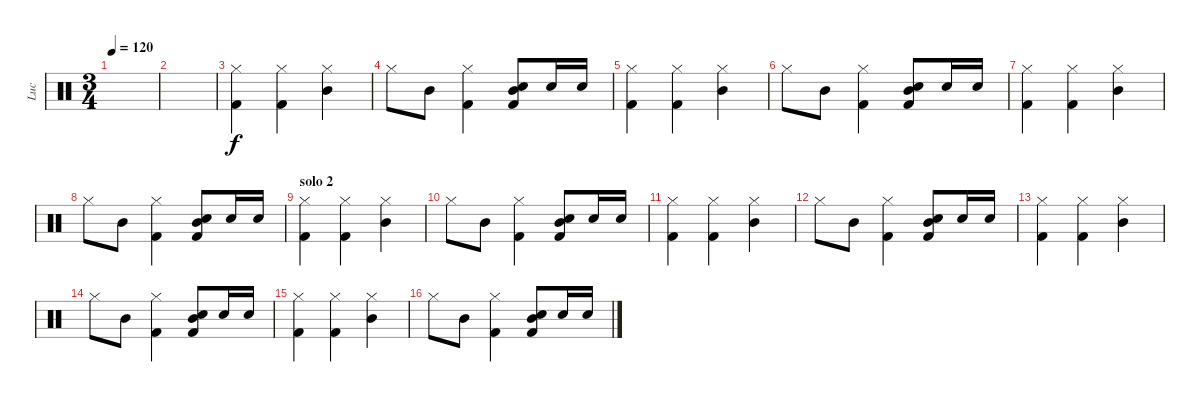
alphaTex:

\track ("Luc" "Luc") {instrument percussion}
\staff {score}
\articulation defaults
\ts (3 4)
\tempo 120
\clef neutral
\ks c
|
|
("Hi-Hat (closed)" "Kick (hit) 2").4 ("Hi-Hat (closed)" "Kick (hit) 2").4 ("Hi-Hat (closed)" "Mid Tom (hit)").4 |
"Hi-Hat (closed)".8 "Mid Tom (hit)".8 ("Hi-Hat (closed)" "Kick (hit) 2").4 ("Mid Tom (hit)" "Snare (hit) 2" "Kick (hit) 2").8 "Snare (hit) 2".16 "Snare (hit) 2".16 |
("Hi-Hat (closed)" "Kick (hit) 2").4 ("Hi-Hat (closed)" "Kick (hit) 2").4 ("Hi-Hat (closed)" "Mid Tom (hit)").4 |
"Hi-Hat (closed)".8 "Mid Tom (hit)".8 ("Hi-Hat (closed)" "Kick (hit) 2").4 ("Mid Tom (hit)" "Snare (hit) 2" "Kick (hit) 2").8 "Snare (hit) 2".16 "Snare (hit) 2".16 |
("Hi-Hat (closed)" "Kick (hit) 2").4 ("Hi-Hat (closed)" "Kick (hit) 2").4 ("Hi-Hat (closed)" "Mid Tom (hit)").4 |
"Hi-Hat (closed)".8 "Mid Tom (hit)".8 ("Hi-Hat (closed)" "Kick (hit) 2").4 ("Mid Tom (hit)" "Snare (hit) 2" "Kick (hit) 2").8 "Snare (hit) 2".16 "Snare (hit) 2".16 |
\section ("" "solo 2")
("Hi-Hat (closed)" "Kick (hit) 2").4 ("Hi-Hat (closed)" "Kick (hit) 2").4 ("Hi-Hat (closed)" "Mid Tom (hit)").4 |
"Hi-Hat (closed)".8 "Mid Tom (hit)".8 ("Hi-Hat (closed)" "Kick (hit) 2").4 ("Mid Tom (hit)" "Snare (hit) 2" "Kick (hit) 2").8 "Snare (hit) 2".16 "Snare (hit) 2".16 |
("Hi-Hat (closed)" "Kick (hit) 2").4 ("Hi-Hat (closed)" "Kick (hit) 2").4 ("Hi-Hat (closed)" "Mid Tom (hit)").4 |
"Hi-Hat (closed)".8 "Mid Tom (hit)".8 ("Hi-Hat (closed)" "Kick (hit) 2").4 ("Mid Tom (hit)" "Snare (hit) 2" "Kick (hit) 2").8 "Snare (hit) 2".16 "Snare (hit) 2".16 |
("Hi-Hat (closed)" "Kick (hit) 2").4 ("Hi-Hat (closed)" "Kick (hit) 2").4 ("Hi-Hat (closed)" "Mid Tom (hit)").4 |
"Hi-Hat (closed)".8 "Mid Tom (hit)".8 ("Hi-Hat (closed)" "Kick (hit) 2").4 ("Mid Tom (hit)" "Snare (hit) 2" "Kick (hit) 2").8 "Snare (hit) 2".16 "Snare (hit) 2".16 |
("Hi-Hat (closed)" "Kick (hit) 2").4 ("Hi-Hat (closed)" "Kick (hit) 2").4 ("Hi-Hat (closed)" "Mid Tom (hit)").4 |
"Hi-Hat (closed)".8 "Mid Tom (hit)".8 ("Hi-Hat (closed)" "Kick (hit) 2").4 ("Mid Tom (hit)" "Snare (hit) 2" "Kick (hit) 2").8 "Snare (hit) 2".16 "Snare (hit) 2".16
